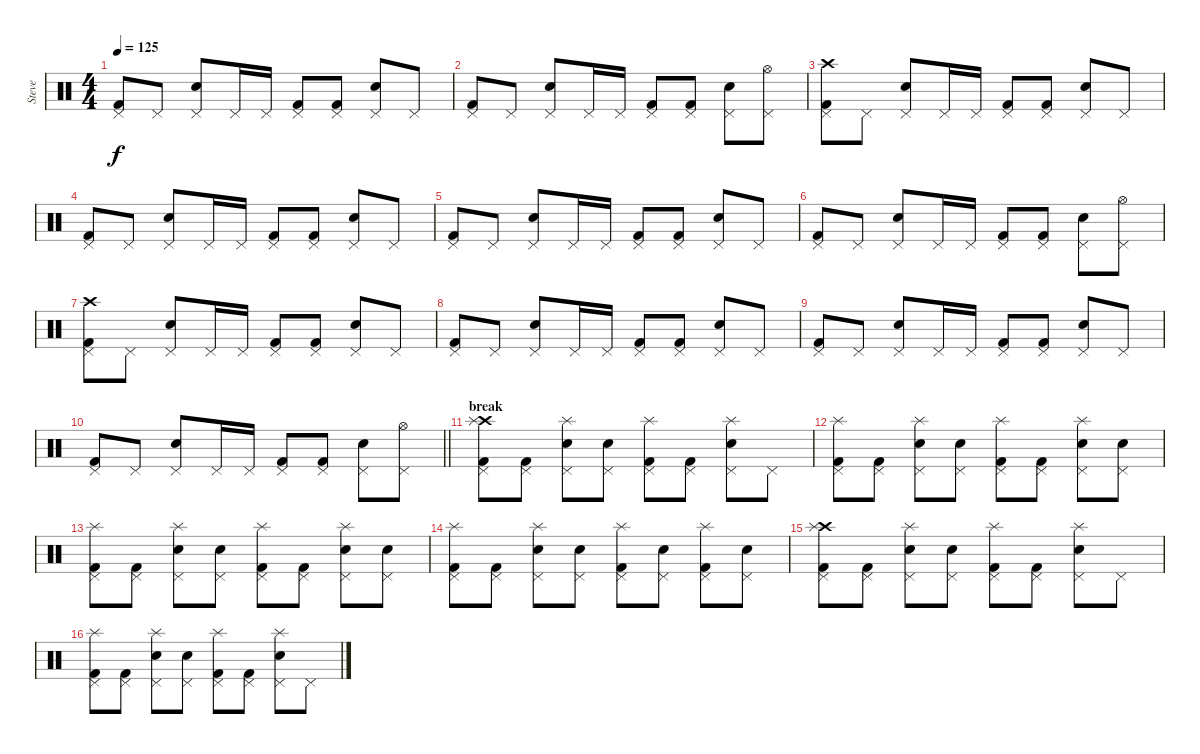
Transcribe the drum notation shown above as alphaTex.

\track ("Steve" "Steve") {instrument percussion}
\staff {score}
\articulation defaults
\ts (4 4)
\tempo 125
\clef neutral
\ks c
("Pedal Hi-Hat (hit)" "Kick (hit) 2").8{dy f} "Pedal Hi-Hat (hit)".8 ("Pedal Hi-Hat (hit)" "Electric Snare (hit)").8 "Pedal Hi-Hat (hit)".16 "Pedal Hi-Hat (hit)".16 ("Pedal Hi-Hat (hit)" "Kick (hit) 2").8 ("Pedal Hi-Hat (hit)" "Kick (hit) 2").8 ("Pedal Hi-Hat (hit)" "Electric Snare (hit)").8 "Pedal Hi-Hat (hit)".8 |
("Pedal Hi-Hat (hit)" "Kick (hit) 2").8 "Pedal Hi-Hat (hit)".8 ("Pedal Hi-Hat (hit)" "Electric Snare (hit)").8 "Pedal Hi-Hat (hit)".16 "Pedal Hi-Hat (hit)".16 ("Pedal Hi-Hat (hit)" "Kick (hit) 2").8 ("Pedal Hi-Hat (hit)" "Kick (hit) 2").8 ("Pedal Hi-Hat (hit)" "Electric Snare (hit)").8 ("Pedal Hi-Hat (hit)" "Hi-Hat (open)").8 |
("Pedal Hi-Hat (hit)" "Crash high (hit)" "Kick (hit) 2").8 "Pedal Hi-Hat (hit)".8 ("Pedal Hi-Hat (hit)" "Electric Snare (hit)").8 "Pedal Hi-Hat (hit)".16 "Pedal Hi-Hat (hit)".16 ("Pedal Hi-Hat (hit)" "Kick (hit) 2").8 ("Pedal Hi-Hat (hit)" "Kick (hit) 2").8 ("Pedal Hi-Hat (hit)" "Electric Snare (hit)").8 "Pedal Hi-Hat (hit)".8 |
("Pedal Hi-Hat (hit)" "Kick (hit) 2").8 "Pedal Hi-Hat (hit)".8 ("Pedal Hi-Hat (hit)" "Electric Snare (hit)").8 "Pedal Hi-Hat (hit)".16 "Pedal Hi-Hat (hit)".16 ("Pedal Hi-Hat (hit)" "Kick (hit) 2").8 ("Pedal Hi-Hat (hit)" "Kick (hit) 2").8 ("Pedal Hi-Hat (hit)" "Electric Snare (hit)").8 "Pedal Hi-Hat (hit)".8 |
("Pedal Hi-Hat (hit)" "Kick (hit) 2").8 "Pedal Hi-Hat (hit)".8 ("Pedal Hi-Hat (hit)" "Electric Snare (hit)").8 "Pedal Hi-Hat (hit)".16 "Pedal Hi-Hat (hit)".16 ("Pedal Hi-Hat (hit)" "Kick (hit) 2").8 ("Pedal Hi-Hat (hit)" "Kick (hit) 2").8 ("Pedal Hi-Hat (hit)" "Electric Snare (hit)").8 "Pedal Hi-Hat (hit)".8 |
("Pedal Hi-Hat (hit)" "Kick (hit) 2").8 "Pedal Hi-Hat (hit)".8 ("Pedal Hi-Hat (hit)" "Electric Snare (hit)").8 "Pedal Hi-Hat (hit)".16 "Pedal Hi-Hat (hit)".16 ("Pedal Hi-Hat (hit)" "Kick (hit) 2").8 ("Pedal Hi-Hat (hit)" "Kick (hit) 2").8 ("Pedal Hi-Hat (hit)" "Electric Snare (hit)").8 ("Pedal Hi-Hat (hit)" "Hi-Hat (open)").8 |
("Pedal Hi-Hat (hit)" "Crash high (hit)" "Kick (hit) 2").8 "Pedal Hi-Hat (hit)".8 ("Pedal Hi-Hat (hit)" "Electric Snare (hit)").8 "Pedal Hi-Hat (hit)".16 "Pedal Hi-Hat (hit)".16 ("Pedal Hi-Hat (hit)" "Kick (hit) 2").8 ("Pedal Hi-Hat (hit)" "Kick (hit) 2").8 ("Pedal Hi-Hat (hit)" "Electric Snare (hit)").8 "Pedal Hi-Hat (hit)".8 |
("Pedal Hi-Hat (hit)" "Kick (hit) 2").8 "Pedal Hi-Hat (hit)".8 ("Pedal Hi-Hat (hit)" "Electric Snare (hit)").8 "Pedal Hi-Hat (hit)".16 "Pedal Hi-Hat (hit)".16 ("Pedal Hi-Hat (hit)" "Kick (hit) 2").8 ("Pedal Hi-Hat (hit)" "Kick (hit) 2").8 ("Pedal Hi-Hat (hit)" "Electric Snare (hit)").8 "Pedal Hi-Hat (hit)".8 |
("Pedal Hi-Hat (hit)" "Kick (hit) 2").8 "Pedal Hi-Hat (hit)".8 ("Pedal Hi-Hat (hit)" "Electric Snare (hit)").8 "Pedal Hi-Hat (hit)".16 "Pedal Hi-Hat (hit)".16 ("Pedal Hi-Hat (hit)" "Kick (hit) 2").8 ("Pedal Hi-Hat (hit)" "Kick (hit) 2").8 ("Pedal Hi-Hat (hit)" "Electric Snare (hit)").8 "Pedal Hi-Hat (hit)".8 |
\barLineRight lightlight
("Pedal Hi-Hat (hit)" "Kick (hit) 2").8 "Pedal Hi-Hat (hit)".8 ("Pedal Hi-Hat (hit)" "Electric Snare (hit)").8 "Pedal Hi-Hat (hit)".16 "Pedal Hi-Hat (hit)".16 ("Pedal Hi-Hat (hit)" "Kick (hit) 2").8 ("Pedal Hi-Hat (hit)" "Kick (hit) 2").8 ("Pedal Hi-Hat (hit)" "Electric Snare (hit)").8 ("Pedal Hi-Hat (hit)" "Hi-Hat (open)").8 |
\section ("" "break")
("Pedal Hi-Hat (hit)" "Crash high (hit)" "Splash (hit)" "Kick (hit) 2").8 ("Pedal Hi-Hat (hit)" "Kick (hit) 2").8 ("Pedal Hi-Hat (hit)" "Splash (hit)" "Electric Snare (hit)").8 ("Pedal Hi-Hat (hit)" "Electric Snare (hit)").8 ("Pedal Hi-Hat (hit)" "Splash (hit)" "Kick (hit) 2").8 ("Pedal Hi-Hat (hit)" "Kick (hit) 2").8 ("Pedal Hi-Hat (hit)" "Splash (hit)" "Electric Snare (hit)").8 "Pedal Hi-Hat (hit)".8 |
("Pedal Hi-Hat (hit)" "Splash (hit)" "Kick (hit) 2").8 ("Pedal Hi-Hat (hit)" "Kick (hit) 2").8 ("Pedal Hi-Hat (hit)" "Splash (hit)" "Electric Snare (hit)").8 ("Pedal Hi-Hat (hit)" "Electric Snare (hit)").8 ("Pedal Hi-Hat (hit)" "Splash (hit)" "Kick (hit) 2").8 ("Pedal Hi-Hat (hit)" "Kick (hit) 2").8 ("Pedal Hi-Hat (hit)" "Splash (hit)" "Electric Snare (hit)").8 ("Pedal Hi-Hat (hit)" "Electric Snare (hit)").8 |
("Pedal Hi-Hat (hit)" "Splash (hit)" "Kick (hit) 2").8 ("Pedal Hi-Hat (hit)" "Kick (hit) 2").8 ("Pedal Hi-Hat (hit)" "Splash (hit)" "Electric Snare (hit)").8 ("Pedal Hi-Hat (hit)" "Electric Snare (hit)").8 ("Pedal Hi-Hat (hit)" "Splash (hit)" "Kick (hit) 2").8 ("Pedal Hi-Hat (hit)" "Kick (hit) 2").8 ("Pedal Hi-Hat (hit)" "Splash (hit)" "Electric Snare (hit)").8 ("Pedal Hi-Hat (hit)" "Electric Snare (hit)").8 |
("Pedal Hi-Hat (hit)" "Splash (hit)" "Kick (hit) 2").8 ("Pedal Hi-Hat (hit)" "Kick (hit) 2").8 ("Pedal Hi-Hat (hit)" "Splash (hit)" "Electric Snare (hit)").8 ("Pedal Hi-Hat (hit)" "Electric Snare (hit)").8 ("Pedal Hi-Hat (hit)" "Splash (hit)" "Kick (hit) 2").8 ("Pedal Hi-Hat (hit)" "Electric Snare (hit)").8 ("Pedal Hi-Hat (hit)" "Splash (hit)" "Kick (hit) 2").8 ("Pedal Hi-Hat (hit)" "Electric Snare (hit)").8 |
("Pedal Hi-Hat (hit)" "Crash high (hit)" "Splash (hit)" "Kick (hit) 2").8 ("Pedal Hi-Hat (hit)" "Kick (hit) 2").8 ("Pedal Hi-Hat (hit)" "Splash (hit)" "Electric Snare (hit)").8 ("Pedal Hi-Hat (hit)" "Electric Snare (hit)").8 ("Pedal Hi-Hat (hit)" "Splash (hit)" "Kick (hit) 2").8 ("Pedal Hi-Hat (hit)" "Kick (hit) 2").8 ("Pedal Hi-Hat (hit)" "Splash (hit)" "Electric Snare (hit)").8 "Pedal Hi-Hat (hit)".8 |
("Pedal Hi-Hat (hit)" "Splash (hit)" "Kick (hit) 2").8 ("Pedal Hi-Hat (hit)" "Kick (hit) 2").8 ("Pedal Hi-Hat (hit)" "Splash (hit)" "Electric Snare (hit)").8 ("Pedal Hi-Hat (hit)" "Electric Snare (hit)").8 ("Pedal Hi-Hat (hit)" "Splash (hit)" "Kick (hit) 2").8 ("Pedal Hi-Hat (hit)" "Kick (hit) 2").8 ("Pedal Hi-Hat (hit)" "Splash (hit)" "Electric Snare (hit)").8 "Pedal Hi-Hat (hit)".8
